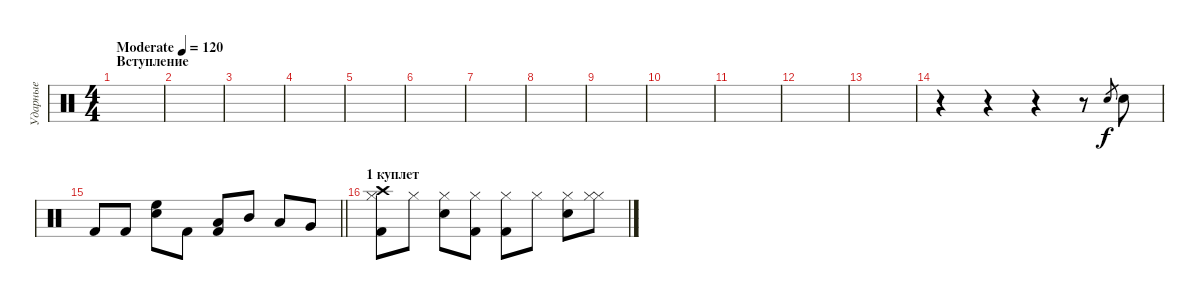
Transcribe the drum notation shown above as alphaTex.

\track ("Ударные" "Ударные") {instrument percussion}
\staff {score}
\articulation defaults
\ts (4 4)
\section ("" "Вступление")
\tempo (120 "Moderate")
\clef neutral
\ks c
|
|
|
|
|
|
|
|
|
|
|
|
|
r.4 r.4 r.4 r.8 "Electric Snare (hit)".8{gr} "Electric Snare (hit)".8 |
\barLineRight lightlight "Kick (hit) 2".8 "Kick (hit) 2".8
("Electric Snare (hit)" "High Floor Tom (hit)").8 "Kick (hit) 2".8 ("Kick (hit) 2" "Low Floor Tom (hit)").8 "Mid Tom (hit)".8 "Low Tom (hit)".8 "Very Low Tom (hit)".8 |
\section ("" "1 куплет")
("Kick (hit) 2" "Hi-Hat (closed)" "Crash high (hit)").8 "Hi-Hat (closed)".8 ("Electric Snare (hit)" "Hi-Hat (closed)").8 ("Kick (hit) 2" "Hi-Hat (closed)").8 ("Kick (hit) 2" "Hi-Hat (closed)").8 "Hi-Hat (closed)".8 ("Electric Snare (hit)" "Hi-Hat (closed)").8 ("Hi-Hat (closed)" "Hi-Hat (closed)").8
